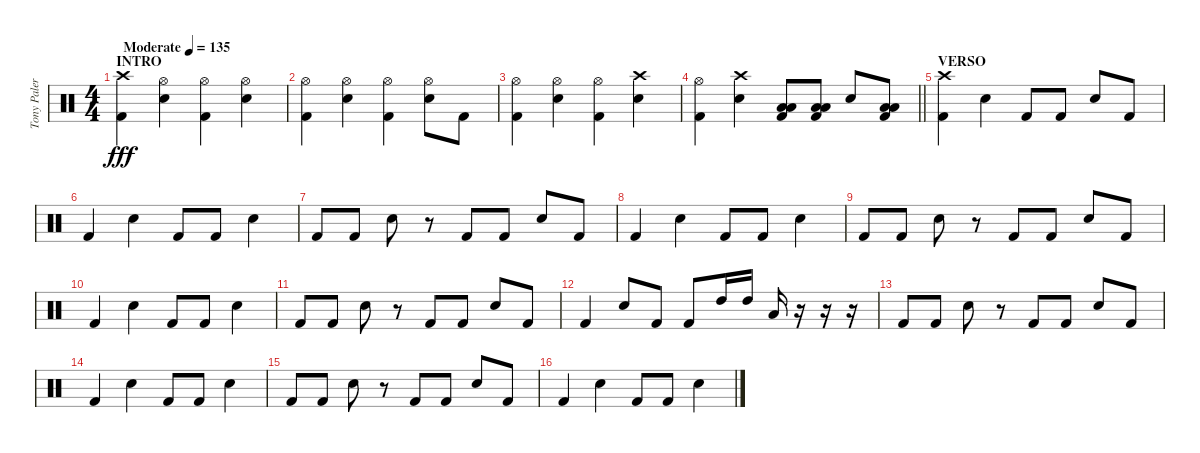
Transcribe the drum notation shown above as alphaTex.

\track ("Tony Palermo" "Tony Paler") {instrument percussion}
\staff {score}
\articulation defaults
\ts (4 4)
\section ("" "INTRO")
\tempo (135 "Moderate")
\clef neutral
\ks c
("Crash high (hit)" "Kick (hit) 2").4{dy fff} ("Hi-Hat (open)" "Snare (hit) 2").4 ("Hi-Hat (open)" "Kick (hit) 2").4 ("Hi-Hat (open)" "Snare (hit) 2").4 |
("Hi-Hat (open)" "Kick (hit) 2").4 ("Hi-Hat (open)" "Snare (hit) 2").4 ("Hi-Hat (open)" "Kick (hit) 2").4 ("Hi-Hat (open)" "Snare (hit) 2").8 "Kick (hit) 2".8 |
("Hi-Hat (open)" "Kick (hit) 2").4 ("Hi-Hat (open)" "Snare (hit) 2").4 ("Hi-Hat (open)" "Kick (hit) 2").4 ("Crash high (hit)" "Snare (hit) 2").4 |
\barLineRight lightlight
("Hi-Hat (open)" "Kick (hit) 2").4 ("Crash high (hit)" "Snare (hit) 2").4 ("Low Tom (hit)" "Low Floor Tom (hit)" "Kick (hit) 2").8 ("Low Tom (hit)" "Low Floor Tom (hit)" "Kick (hit) 2").8 "Snare (hit) 2".8 ("Low Tom (hit)" "Low Floor Tom (hit)" "Kick (hit) 2").8 |
\section ("" "VERSO")
("Crash high (hit)" "Kick (hit) 2").4 "Snare (hit) 2".4 "Kick (hit) 2".8 "Kick (hit) 2".8 "Snare (hit) 2".8 "Kick (hit) 2".8 |
"Kick (hit) 2".4 "Snare (hit) 2".4 "Kick (hit) 2".8 "Kick (hit) 2".8 "Snare (hit) 2".4 |
"Kick (hit) 2".8 "Kick (hit) 2".8 "Snare (hit) 2".8 r.8 "Kick (hit) 2".8 "Kick (hit) 2".8 "Snare (hit) 2".8 "Kick (hit) 2".8 |
"Kick (hit) 2".4 "Snare (hit) 2".4 "Kick (hit) 2".8 "Kick (hit) 2".8 "Snare (hit) 2".4 |
"Kick (hit) 2".8 "Kick (hit) 2".8 "Snare (hit) 2".8 r.8 "Kick (hit) 2".8 "Kick (hit) 2".8 "Snare (hit) 2".8 "Kick (hit) 2".8 |
"Kick (hit) 2".4 "Snare (hit) 2".4 "Kick (hit) 2".8 "Kick (hit) 2".8 "Snare (hit) 2".4 |
"Kick (hit) 2".8 "Kick (hit) 2".8 "Snare (hit) 2".8 r.8 "Kick (hit) 2".8 "Kick (hit) 2".8 "Snare (hit) 2".8 "Kick (hit) 2".8 |
"Kick (hit) 2".4 "Snare (hit) 2".8 "Kick (hit) 2".8 "Kick (hit) 2".8 "High Tom (hit)".16 "High Tom (hit)".16 "Low Floor Tom (hit)".16 r.16 r.16 r.16 |
"Kick (hit) 2".8 "Kick (hit) 2".8 "Snare (hit) 2".8 r.8 "Kick (hit) 2".8 "Kick (hit) 2".8 "Snare (hit) 2".8 "Kick (hit) 2".8 |
"Kick (hit) 2".4 "Snare (hit) 2".4 "Kick (hit) 2".8 "Kick (hit) 2".8 "Snare (hit) 2".4 |
"Kick (hit) 2".8 "Kick (hit) 2".8 "Snare (hit) 2".8 r.8 "Kick (hit) 2".8 "Kick (hit) 2".8 "Snare (hit) 2".8 "Kick (hit) 2".8 |
"Kick (hit) 2".4 "Snare (hit) 2".4 "Kick (hit) 2".8 "Kick (hit) 2".8 "Snare (hit) 2".4
